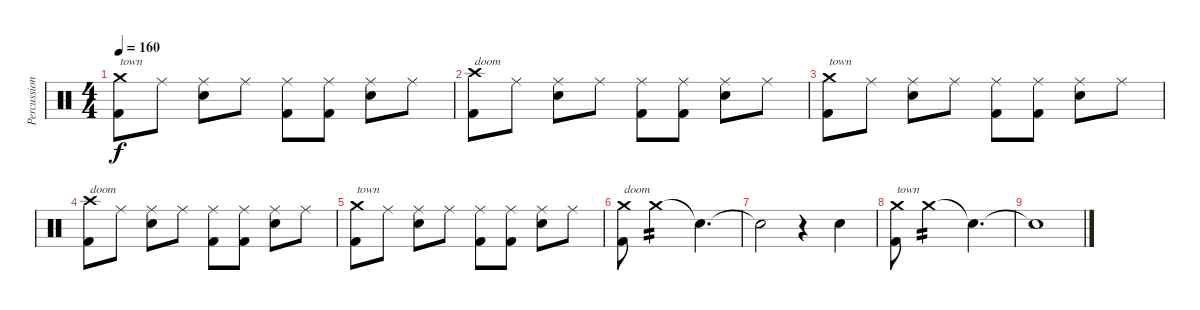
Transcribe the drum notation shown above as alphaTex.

\track ("Percussion 2 var" "Percussion") {mute instrument percussion}
\staff {score}
\articulation defaults
\ts (4 4)
\tempo 160
\clef neutral
\ks c
("Crash medium (hit)" "Kick (hit) 2").8{txt "town" dy f} "Ride (middle)".8 ("Ride (middle)" "Snare (hit) 2").8 "Ride (middle)".8 ("Ride (middle)" "Kick (hit) 2").8 ("Ride (middle)" "Kick (hit) 2").8 ("Ride (middle)" "Snare (hit) 2").8 "Ride (middle)".8 |
("Crash high (hit)" "Kick (hit) 2").8{txt "doom"} "Ride (middle)".8 ("Ride (middle)" "Snare (hit) 2").8 "Ride (middle)".8 ("Ride (middle)" "Kick (hit) 2").8 ("Ride (middle)" "Kick (hit) 2").8 ("Ride (middle)" "Snare (hit) 2").8 "Ride (middle)".8 |
("Crash medium (hit)" "Kick (hit) 2").8{txt "town"} "Ride (middle)".8 ("Ride (middle)" "Snare (hit) 2").8 "Ride (middle)".8 ("Ride (middle)" "Kick (hit) 2").8 ("Ride (middle)" "Kick (hit) 2").8 ("Ride (middle)" "Snare (hit) 2").8 "Ride (middle)".8 |
("Crash high (hit)" "Kick (hit) 2").8{txt "doom"} "Ride (middle)".8 ("Ride (middle)" "Snare (hit) 2").8 "Ride (middle)".8 ("Ride (middle)" "Kick (hit) 2").8 ("Ride (middle)" "Kick (hit) 2").8 ("Ride (middle)" "Snare (hit) 2").8 "Ride (middle)".8 |
("Crash medium (hit)" "Kick (hit) 2").8{txt "town"} "Ride (middle)".8 ("Ride (middle)" "Snare (hit) 2").8 "Ride (middle)".8 ("Ride (middle)" "Kick (hit) 2").8 ("Ride (middle)" "Kick (hit) 2").8 ("Ride (middle)" "Snare (hit) 2").8 "Ride (middle)".8 |
("Crash medium (hit)" "Kick (hit) 2").8{txt "doom"} "Crash medium (hit)".2{tp 2} "Snare (hit)"{t}.4{d} |
"Snare (hit)"{t}.2 r.4 "Snare (hit) 2".4 |
("Crash medium (hit)" "Kick (hit) 2").8{txt "town"} "Crash medium (hit)".2{tp 2} "Snare (hit)"{t}.4{d} |
"Snare (hit)"{t}.1
